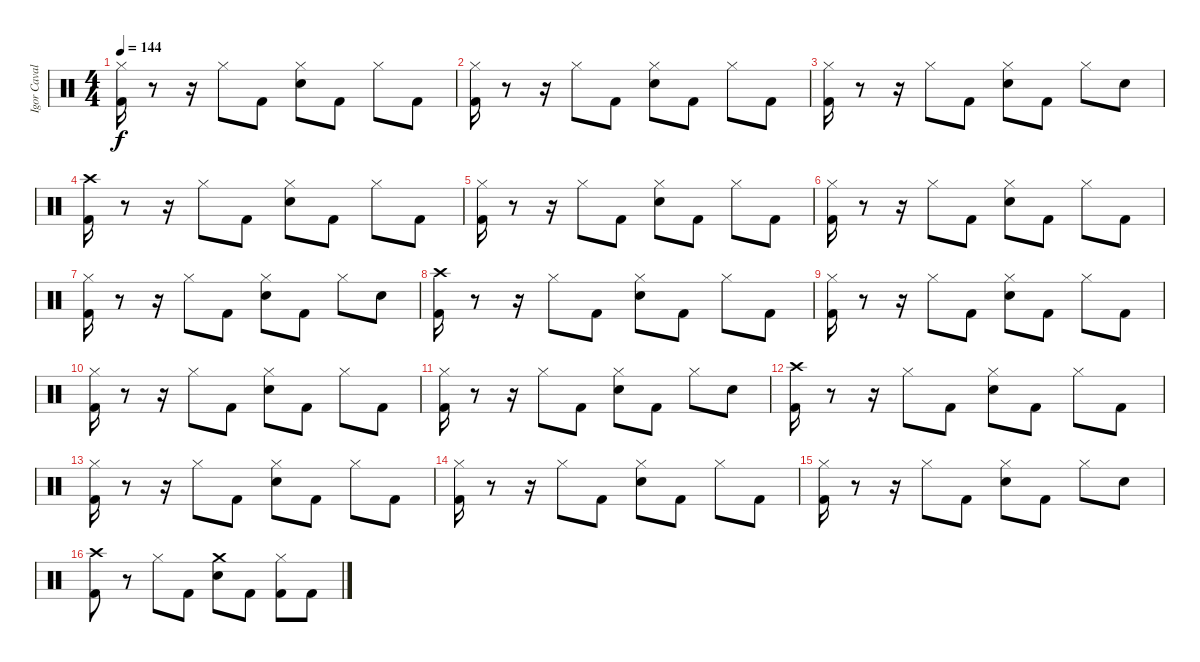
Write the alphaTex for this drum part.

\track ("Igor Cavalera" "Igor Caval") {instrument percussion}
\staff {score}
\articulation defaults
\ts (4 4)
\tempo 144
\clef neutral
\ks c
("Kick (hit) 2" "Hi-Hat (closed)").16{dy f} r.8 r.16 "Hi-Hat (closed)".8 "Kick (hit) 2".8 ("Snare (hit) 2" "Hi-Hat (closed)").8 "Kick (hit) 2".8 "Hi-Hat (closed)".8 "Kick (hit) 2".8 |
("Kick (hit) 2" "Hi-Hat (closed)").16 r.8 r.16 "Hi-Hat (closed)".8 "Kick (hit) 2".8 ("Snare (hit) 2" "Hi-Hat (closed)").8 "Kick (hit) 2".8 "Hi-Hat (closed)".8 "Kick (hit) 2".8 |
("Kick (hit) 2" "Hi-Hat (closed)").16 r.8 r.16 "Hi-Hat (closed)".8 "Kick (hit) 2".8 ("Snare (hit) 2" "Hi-Hat (closed)").8 "Kick (hit) 2".8 "Hi-Hat (closed)".8 "Snare (hit) 2".8 |
("Kick (hit) 2" "Crash high (hit)").16 r.8 r.16 "Hi-Hat (closed)".8 "Kick (hit) 2".8 ("Snare (hit) 2" "Hi-Hat (closed)").8 "Kick (hit) 2".8 "Hi-Hat (closed)".8 "Kick (hit) 2".8 |
("Kick (hit) 2" "Hi-Hat (closed)").16 r.8 r.16 "Hi-Hat (closed)".8 "Kick (hit) 2".8 ("Snare (hit) 2" "Hi-Hat (closed)").8 "Kick (hit) 2".8 "Hi-Hat (closed)".8 "Kick (hit) 2".8 |
("Kick (hit) 2" "Hi-Hat (closed)").16 r.8 r.16 "Hi-Hat (closed)".8 "Kick (hit) 2".8 ("Snare (hit) 2" "Hi-Hat (closed)").8 "Kick (hit) 2".8 "Hi-Hat (closed)".8 "Kick (hit) 2".8 |
("Kick (hit) 2" "Hi-Hat (closed)").16 r.8 r.16 "Hi-Hat (closed)".8 "Kick (hit) 2".8 ("Snare (hit) 2" "Hi-Hat (closed)").8 "Kick (hit) 2".8 "Hi-Hat (closed)".8 "Snare (hit) 2".8 |
("Kick (hit) 2" "Crash high (hit)").16 r.8 r.16 "Hi-Hat (closed)".8 "Kick (hit) 2".8 ("Snare (hit) 2" "Hi-Hat (closed)").8 "Kick (hit) 2".8 "Hi-Hat (closed)".8 "Kick (hit) 2".8 |
("Kick (hit) 2" "Hi-Hat (closed)").16 r.8 r.16 "Hi-Hat (closed)".8 "Kick (hit) 2".8 ("Snare (hit) 2" "Hi-Hat (closed)").8 "Kick (hit) 2".8 "Hi-Hat (closed)".8 "Kick (hit) 2".8 |
("Kick (hit) 2" "Hi-Hat (closed)").16 r.8 r.16 "Hi-Hat (closed)".8 "Kick (hit) 2".8 ("Snare (hit) 2" "Hi-Hat (closed)").8 "Kick (hit) 2".8 "Hi-Hat (closed)".8 "Kick (hit) 2".8 |
("Kick (hit) 2" "Hi-Hat (closed)").16 r.8 r.16 "Hi-Hat (closed)".8 "Kick (hit) 2".8 ("Snare (hit) 2" "Hi-Hat (closed)").8 "Kick (hit) 2".8 "Hi-Hat (closed)".8 "Snare (hit) 2".8 |
("Kick (hit) 2" "Crash high (hit)").16 r.8 r.16 "Hi-Hat (closed)".8 "Kick (hit) 2".8 ("Snare (hit) 2" "Hi-Hat (closed)").8 "Kick (hit) 2".8 "Hi-Hat (closed)".8 "Kick (hit) 2".8 |
("Kick (hit) 2" "Hi-Hat (closed)").16 r.8 r.16 "Hi-Hat (closed)".8 "Kick (hit) 2".8 ("Snare (hit) 2" "Hi-Hat (closed)").8 "Kick (hit) 2".8 "Hi-Hat (closed)".8 "Kick (hit) 2".8 |
("Kick (hit) 2" "Hi-Hat (closed)").16 r.8 r.16 "Hi-Hat (closed)".8 "Kick (hit) 2".8 ("Snare (hit) 2" "Hi-Hat (closed)").8 "Kick (hit) 2".8 "Hi-Hat (closed)".8 "Kick (hit) 2".8 |
("Kick (hit) 2" "Hi-Hat (closed)").16 r.8 r.16 "Hi-Hat (closed)".8 "Kick (hit) 2".8 ("Snare (hit) 2" "Hi-Hat (closed)").8 "Kick (hit) 2".8 "Hi-Hat (closed)".8 "Snare (hit) 2".8 |
("Kick (hit) 2" "Crash high (hit)").8 r.8 "Hi-Hat (closed)".8 "Kick (hit) 2".8 ("Snare (hit) 2" "Crash medium (hit)").8 "Kick (hit) 2".8 ("Hi-Hat (closed)" "Kick (hit) 2").8 "Kick (hit) 2".8
